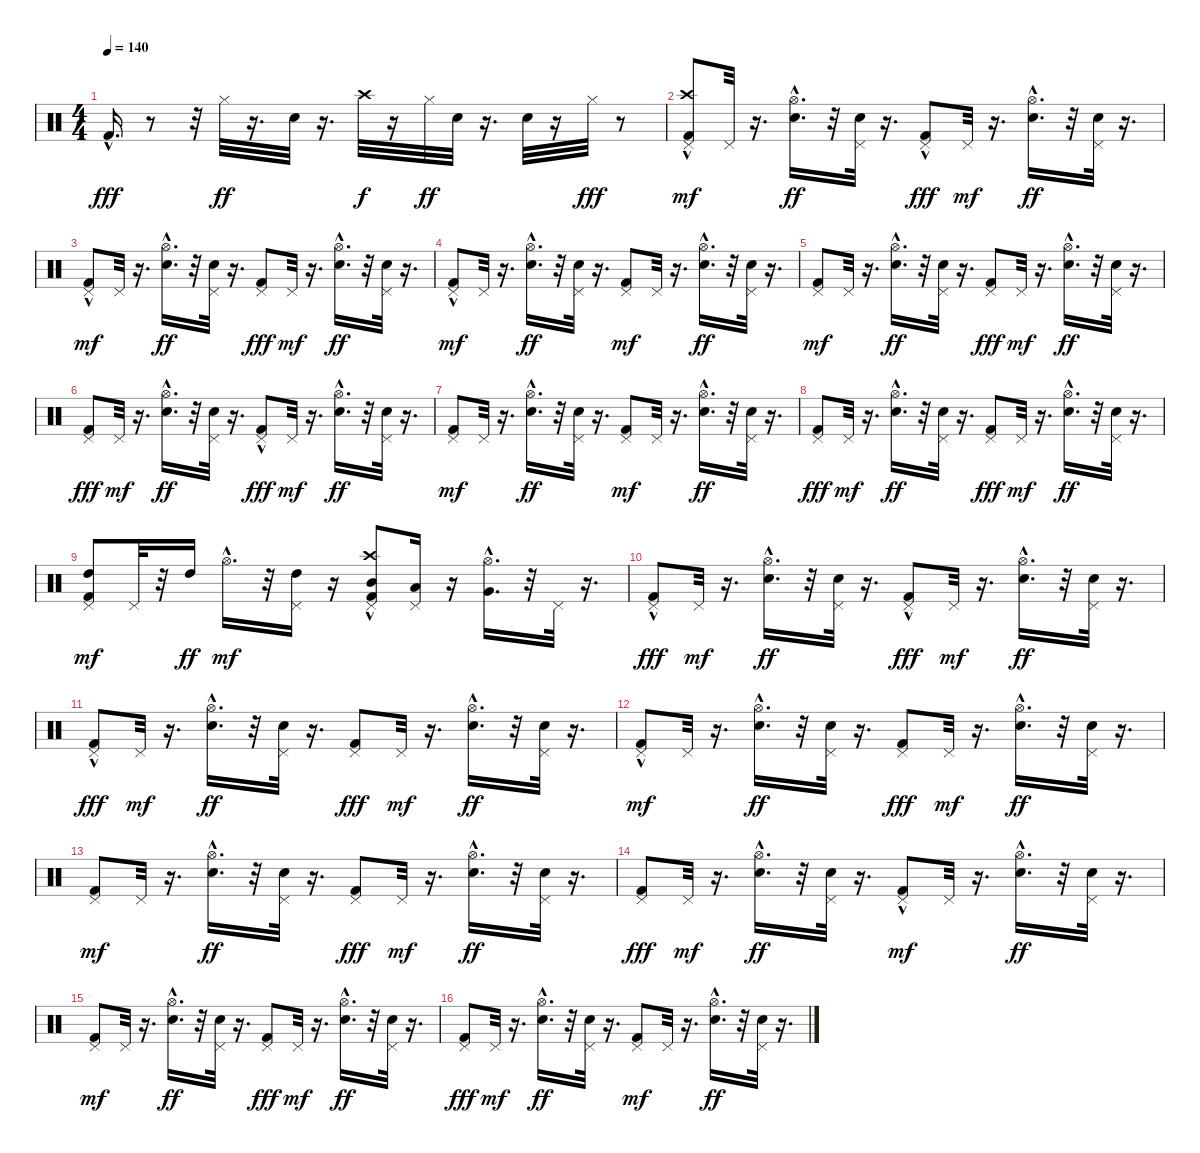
\track "" {instrument percussion}
\staff {score}
\articulation defaults
\ts (4 4)
\tempo 140
\clef neutral
\ks c "Kick (hit) 2"{hac}.16{d dy fff}
r.8 r.32 "Hi-Hat (closed)".32{dy ff} r.16{d} "Electric Snare (hit)".32 r.16{d} "Crash high (hit)".32{dy f} r.16 "Hi-Hat (closed)".32{dy ff} "Electric Snare (hit)".32 r.16{d} "Electric Snare (hit)".32 r.16 "Hi-Hat (closed)".32{dy fff} r.8 |
("Kick (hit) 2"{hac} "Crash high (hit)" "Pedal Hi-Hat (hit)").8{dy mf} "Pedal Hi-Hat (hit)".32 r.16{d} ("Hi-Hat (open)"{hac} "Electric Snare (hit)").16{d dy ff} r.32 ("Pedal Hi-Hat (hit)" "Electric Snare (hit)").32 r.16{d} ("Pedal Hi-Hat (hit)" "Kick (hit) 2"{hac}).8{dy fff} "Pedal Hi-Hat (hit)".32{dy mf} r.16{d} ("Hi-Hat (open)"{hac} "Electric Snare (hit)").16{d dy ff} r.32 ("Pedal Hi-Hat (hit)" "Electric Snare (hit)").32 r.16{d} |
("Kick (hit) 2"{hac} "Pedal Hi-Hat (hit)").8{dy mf} "Pedal Hi-Hat (hit)".32 r.16{d} ("Hi-Hat (open)"{hac} "Electric Snare (hit)").16{d dy ff} r.32 ("Pedal Hi-Hat (hit)" "Electric Snare (hit)").32 r.16{d} ("Pedal Hi-Hat (hit)" "Kick (hit) 2").8{dy fff} "Pedal Hi-Hat (hit)".32{dy mf} r.16{d} ("Hi-Hat (open)"{hac} "Electric Snare (hit)").16{d dy ff} r.32 ("Pedal Hi-Hat (hit)" "Electric Snare (hit)").32 r.16{d} |
("Kick (hit) 2"{hac} "Pedal Hi-Hat (hit)").8{dy mf} "Pedal Hi-Hat (hit)".32 r.16{d} ("Hi-Hat (open)"{hac} "Electric Snare (hit)").16{d dy ff} r.32 ("Pedal Hi-Hat (hit)" "Electric Snare (hit)").32 r.16{d} ("Kick (hit) 2" "Pedal Hi-Hat (hit)").8{dy mf} "Pedal Hi-Hat (hit)".32 r.16{d} ("Hi-Hat (open)"{hac} "Electric Snare (hit)").16{d dy ff} r.32 ("Pedal Hi-Hat (hit)" "Electric Snare (hit)").32 r.16{d} |
("Kick (hit) 2" "Pedal Hi-Hat (hit)").8{dy mf} "Pedal Hi-Hat (hit)".32 r.16{d} ("Hi-Hat (open)"{hac} "Electric Snare (hit)").16{d dy ff} r.32 ("Pedal Hi-Hat (hit)" "Electric Snare (hit)").32 r.16{d} ("Pedal Hi-Hat (hit)" "Kick (hit) 2").8{dy fff} "Pedal Hi-Hat (hit)".32{dy mf} r.16{d} ("Hi-Hat (open)"{hac} "Electric Snare (hit)").16{d dy ff} r.32 ("Pedal Hi-Hat (hit)" "Electric Snare (hit)").32 r.16{d} |
("Pedal Hi-Hat (hit)" "Kick (hit) 2").8{dy fff} "Pedal Hi-Hat (hit)".32{dy mf} r.16{d} ("Hi-Hat (open)"{hac} "Electric Snare (hit)").16{d dy ff} r.32 ("Pedal Hi-Hat (hit)" "Electric Snare (hit)").32 r.16{d} ("Pedal Hi-Hat (hit)" "Kick (hit) 2"{hac}).8{dy fff} "Pedal Hi-Hat (hit)".32{dy mf} r.16{d} ("Hi-Hat (open)"{hac} "Electric Snare (hit)").16{d dy ff} r.32 ("Pedal Hi-Hat (hit)" "Electric Snare (hit)").32 r.16{d} |
("Kick (hit) 2" "Pedal Hi-Hat (hit)").8{dy mf} "Pedal Hi-Hat (hit)".32 r.16{d} ("Hi-Hat (open)"{hac} "Electric Snare (hit)").16{d dy ff} r.32 ("Pedal Hi-Hat (hit)" "Electric Snare (hit)").32 r.16{d} ("Kick (hit) 2" "Pedal Hi-Hat (hit)").8{dy mf} "Pedal Hi-Hat (hit)".32 r.16{d} ("Hi-Hat (open)"{hac} "Electric Snare (hit)").16{d dy ff} r.32 ("Pedal Hi-Hat (hit)" "Electric Snare (hit)").32 r.16{d} |
("Pedal Hi-Hat (hit)" "Kick (hit) 2").8{dy fff} "Pedal Hi-Hat (hit)".32{dy mf} r.16{d} ("Hi-Hat (open)"{hac} "Electric Snare (hit)").16{d dy ff} r.32 ("Pedal Hi-Hat (hit)" "Electric Snare (hit)").32 r.16{d} ("Pedal Hi-Hat (hit)" "Kick (hit) 2").8{dy fff} "Pedal Hi-Hat (hit)".32{dy mf} r.16{d} ("Hi-Hat (open)"{hac} "Electric Snare (hit)").16{d dy ff} r.32 ("Pedal Hi-Hat (hit)" "Electric Snare (hit)").32 r.16{d} |
("High Tom (hit)" "Kick (hit) 2" "Pedal Hi-Hat (hit)").8{dy mf} "Pedal Hi-Hat (hit)".32 r.32 "High Tom (hit)".16{dy ff} "Hi-Hat (open)"{hac}.16{d dy mf} r.32 ("High Tom (hit)" "Pedal Hi-Hat (hit)").16 r.16 ("Kick (hit) 2"{hac} "Mid Tom (hit)" "Pedal Hi-Hat (hit)" "Crash high (hit)").8 ("Low Tom (hit)" "Pedal Hi-Hat (hit)").16 r.16 ("Very Low Tom (hit)"{hac} "Hi-Hat (open)"{hac}).16{d} r.32 "Pedal Hi-Hat (hit)".32 r.16{d} |
("Pedal Hi-Hat (hit)" "Kick (hit) 2"{hac}).8{dy fff} "Pedal Hi-Hat (hit)".32{dy mf} r.16{d} ("Hi-Hat (open)"{hac} "Electric Snare (hit)").16{d dy ff} r.32 ("Pedal Hi-Hat (hit)" "Electric Snare (hit)").32 r.16{d} ("Pedal Hi-Hat (hit)" "Kick (hit) 2"{hac}).8{dy fff} "Pedal Hi-Hat (hit)".32{dy mf} r.16{d} ("Hi-Hat (open)"{hac} "Electric Snare (hit)").16{d dy ff} r.32 ("Pedal Hi-Hat (hit)" "Electric Snare (hit)").32 r.16{d} |
("Pedal Hi-Hat (hit)" "Kick (hit) 2"{hac}).8{dy fff} "Pedal Hi-Hat (hit)".32{dy mf} r.16{d} ("Hi-Hat (open)"{hac} "Electric Snare (hit)").16{d dy ff} r.32 ("Pedal Hi-Hat (hit)" "Electric Snare (hit)").32 r.16{d} ("Pedal Hi-Hat (hit)" "Kick (hit) 2").8{dy fff} "Pedal Hi-Hat (hit)".32{dy mf} r.16{d} ("Hi-Hat (open)"{hac} "Electric Snare (hit)").16{d dy ff} r.32 ("Pedal Hi-Hat (hit)" "Electric Snare (hit)").32 r.16{d} |
("Kick (hit) 2"{hac} "Pedal Hi-Hat (hit)").8{dy mf} "Pedal Hi-Hat (hit)".32 r.16{d} ("Hi-Hat (open)"{hac} "Electric Snare (hit)").16{d dy ff} r.32 ("Pedal Hi-Hat (hit)" "Electric Snare (hit)").32 r.16{d} ("Pedal Hi-Hat (hit)" "Kick (hit) 2").8{dy fff} "Pedal Hi-Hat (hit)".32{dy mf} r.16{d} ("Hi-Hat (open)"{hac} "Electric Snare (hit)").16{d dy ff} r.32 ("Pedal Hi-Hat (hit)" "Electric Snare (hit)").32 r.16{d} |
("Kick (hit) 2" "Pedal Hi-Hat (hit)").8{dy mf} "Pedal Hi-Hat (hit)".32 r.16{d} ("Hi-Hat (open)"{hac} "Electric Snare (hit)").16{d dy ff} r.32 ("Pedal Hi-Hat (hit)" "Electric Snare (hit)").32 r.16{d} ("Pedal Hi-Hat (hit)" "Kick (hit) 2").8{dy fff} "Pedal Hi-Hat (hit)".32{dy mf} r.16{d} ("Hi-Hat (open)"{hac} "Electric Snare (hit)").16{d dy ff} r.32 ("Pedal Hi-Hat (hit)" "Electric Snare (hit)").32 r.16{d} |
("Pedal Hi-Hat (hit)" "Kick (hit) 2").8{dy fff} "Pedal Hi-Hat (hit)".32{dy mf} r.16{d} ("Hi-Hat (open)"{hac} "Electric Snare (hit)").16{d dy ff} r.32 ("Pedal Hi-Hat (hit)" "Electric Snare (hit)").32 r.16{d} ("Kick (hit) 2"{hac} "Pedal Hi-Hat (hit)").8{dy mf} "Pedal Hi-Hat (hit)".32 r.16{d} ("Hi-Hat (open)"{hac} "Electric Snare (hit)").16{d dy ff} r.32 ("Pedal Hi-Hat (hit)" "Electric Snare (hit)").32 r.16{d} |
("Kick (hit) 2" "Pedal Hi-Hat (hit)").8{dy mf} "Pedal Hi-Hat (hit)".32 r.16{d} ("Hi-Hat (open)"{hac} "Electric Snare (hit)").16{d dy ff} r.32 ("Pedal Hi-Hat (hit)" "Electric Snare (hit)").32 r.16{d} ("Pedal Hi-Hat (hit)" "Kick (hit) 2").8{dy fff} "Pedal Hi-Hat (hit)".32{dy mf} r.16{d} ("Hi-Hat (open)"{hac} "Electric Snare (hit)").16{d dy ff} r.32 ("Pedal Hi-Hat (hit)" "Electric Snare (hit)").32 r.16{d} |
("Pedal Hi-Hat (hit)" "Kick (hit) 2").8{dy fff} "Pedal Hi-Hat (hit)".32{dy mf} r.16{d} ("Hi-Hat (open)"{hac} "Electric Snare (hit)").16{d dy ff} r.32 ("Pedal Hi-Hat (hit)" "Electric Snare (hit)").32 r.16{d} ("Kick (hit) 2" "Pedal Hi-Hat (hit)").8{dy mf} "Pedal Hi-Hat (hit)".32 r.16{d} ("Hi-Hat (open)"{hac} "Electric Snare (hit)").16{d dy ff} r.32 ("Pedal Hi-Hat (hit)" "Electric Snare (hit)").32 r.16{d}
